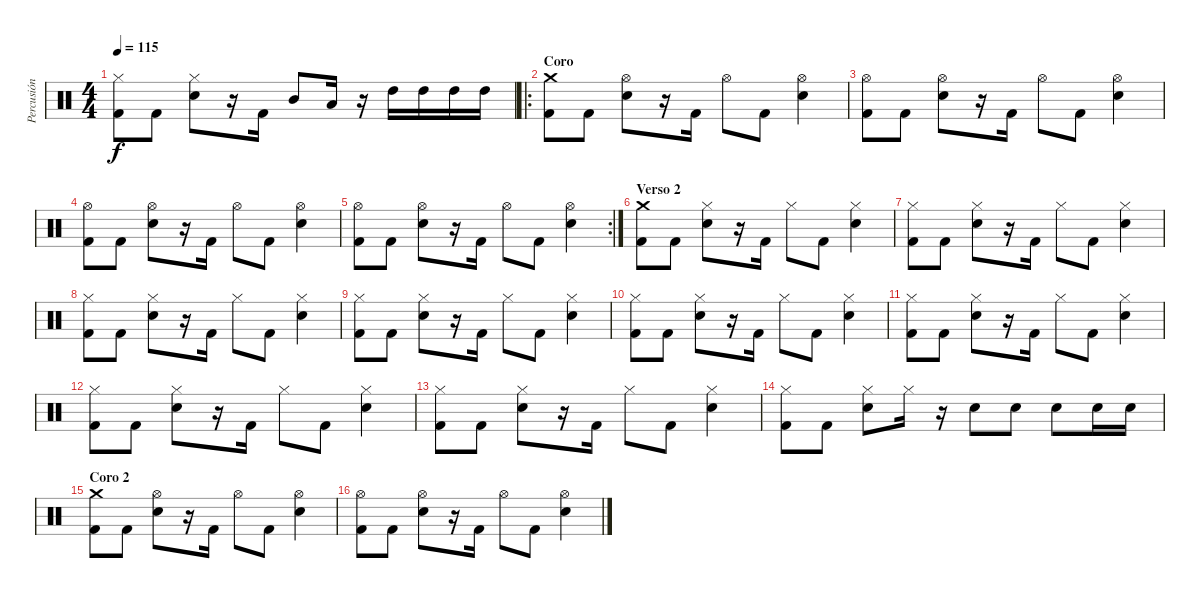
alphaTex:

\track ("Percusión" "Percusión") {instrument percussion}
\staff {score}
\articulation defaults
\ts (4 4)
\tempo 115
\clef neutral
\ks c
("Kick (hit) 2" "Hi-Hat (closed)").8{dy f} "Kick (hit) 2".8 ("Electric Snare (hit)" "Hi-Hat (closed)").8 r.16 "Kick (hit) 2".16 "Mid Tom (hit)".8 "Low Tom (hit)".16 r.16 "High Tom (hit)".16 "High Tom (hit)".16 "High Tom (hit)".16 "High Tom (hit)".16 |
\ro
\section ("" "Coro")
("Kick (hit) 2" "Crash medium (hit)").8 "Kick (hit) 2".8 ("Electric Snare (hit)" "Hi-Hat (open)").8 r.16 "Kick (hit) 2".16 "Hi-Hat (open)".8 "Kick (hit) 2".8 ("Electric Snare (hit)" "Hi-Hat (open)").4 |
("Kick (hit) 2" "Hi-Hat (open)").8 "Kick (hit) 2".8 ("Electric Snare (hit)" "Hi-Hat (open)").8 r.16 "Kick (hit) 2".16 "Hi-Hat (open)".8 "Kick (hit) 2".8 ("Electric Snare (hit)" "Hi-Hat (open)").4 |
("Kick (hit) 2" "Hi-Hat (open)").8 "Kick (hit) 2".8 ("Electric Snare (hit)" "Hi-Hat (open)").8 r.16 "Kick (hit) 2".16 "Hi-Hat (open)".8 "Kick (hit) 2".8 ("Electric Snare (hit)" "Hi-Hat (open)").4 |
\rc 2
("Kick (hit) 2" "Hi-Hat (open)").8 "Kick (hit) 2".8 ("Electric Snare (hit)" "Hi-Hat (open)").8 r.16 "Kick (hit) 2".16 "Hi-Hat (open)".8 "Kick (hit) 2".8 ("Electric Snare (hit)" "Hi-Hat (open)").4 |
\section ("" "Verso 2")
("Kick (hit) 2" "Crash medium (hit)").8 "Kick (hit) 2".8 ("Electric Snare (hit)" "Hi-Hat (closed)").8 r.16 "Kick (hit) 2".16 "Hi-Hat (closed)".8 "Kick (hit) 2".8 ("Electric Snare (hit)" "Hi-Hat (closed)").4 |
("Kick (hit) 2" "Hi-Hat (closed)").8 "Kick (hit) 2".8 ("Electric Snare (hit)" "Hi-Hat (closed)").8 r.16 "Kick (hit) 2".16 "Hi-Hat (closed)".8 "Kick (hit) 2".8 ("Electric Snare (hit)" "Hi-Hat (closed)").4 |
("Kick (hit) 2" "Hi-Hat (closed)").8 "Kick (hit) 2".8 ("Electric Snare (hit)" "Hi-Hat (closed)").8 r.16 "Kick (hit) 2".16 "Hi-Hat (closed)".8 "Kick (hit) 2".8 ("Electric Snare (hit)" "Hi-Hat (closed)").4 |
("Kick (hit) 2" "Hi-Hat (closed)").8 "Kick (hit) 2".8 ("Electric Snare (hit)" "Hi-Hat (closed)").8 r.16 "Kick (hit) 2".16 "Hi-Hat (closed)".8 "Kick (hit) 2".8 ("Electric Snare (hit)" "Hi-Hat (closed)").4 |
("Kick (hit) 2" "Hi-Hat (closed)").8 "Kick (hit) 2".8 ("Electric Snare (hit)" "Hi-Hat (closed)").8 r.16 "Kick (hit) 2".16 "Hi-Hat (closed)".8 "Kick (hit) 2".8 ("Electric Snare (hit)" "Hi-Hat (closed)").4 |
("Kick (hit) 2" "Hi-Hat (closed)").8 "Kick (hit) 2".8 ("Electric Snare (hit)" "Hi-Hat (closed)").8 r.16 "Kick (hit) 2".16 "Hi-Hat (closed)".8 "Kick (hit) 2".8 ("Electric Snare (hit)" "Hi-Hat (closed)").4 |
("Kick (hit) 2" "Hi-Hat (closed)").8 "Kick (hit) 2".8 ("Electric Snare (hit)" "Hi-Hat (closed)").8 r.16 "Kick (hit) 2".16 "Hi-Hat (closed)".8 "Kick (hit) 2".8 ("Electric Snare (hit)" "Hi-Hat (closed)").4 |
("Kick (hit) 2" "Hi-Hat (closed)").8 "Kick (hit) 2".8 ("Electric Snare (hit)" "Hi-Hat (closed)").8 r.16 "Kick (hit) 2".16 "Hi-Hat (closed)".8 "Kick (hit) 2".8 ("Electric Snare (hit)" "Hi-Hat (closed)").4 |
("Kick (hit) 2" "Hi-Hat (closed)").8 "Kick (hit) 2".8 ("Electric Snare (hit)" "Hi-Hat (closed)").8 "Hi-Hat (closed)".16 r.16 "Electric Snare (hit)".8 "Electric Snare (hit)".8 "Electric Snare (hit)".8 "Electric Snare (hit)".16 "Electric Snare (hit)".16 |
\section ("" "Coro 2")
("Kick (hit) 2" "Crash medium (hit)").8 "Kick (hit) 2".8 ("Electric Snare (hit)" "Hi-Hat (open)").8 r.16 "Kick (hit) 2".16 "Hi-Hat (open)".8 "Kick (hit) 2".8 ("Electric Snare (hit)" "Hi-Hat (open)").4 |
("Kick (hit) 2" "Hi-Hat (open)").8 "Kick (hit) 2".8 ("Electric Snare (hit)" "Hi-Hat (open)").8 r.16 "Kick (hit) 2".16 "Hi-Hat (open)".8 "Kick (hit) 2".8 ("Electric Snare (hit)" "Hi-Hat (open)").4
